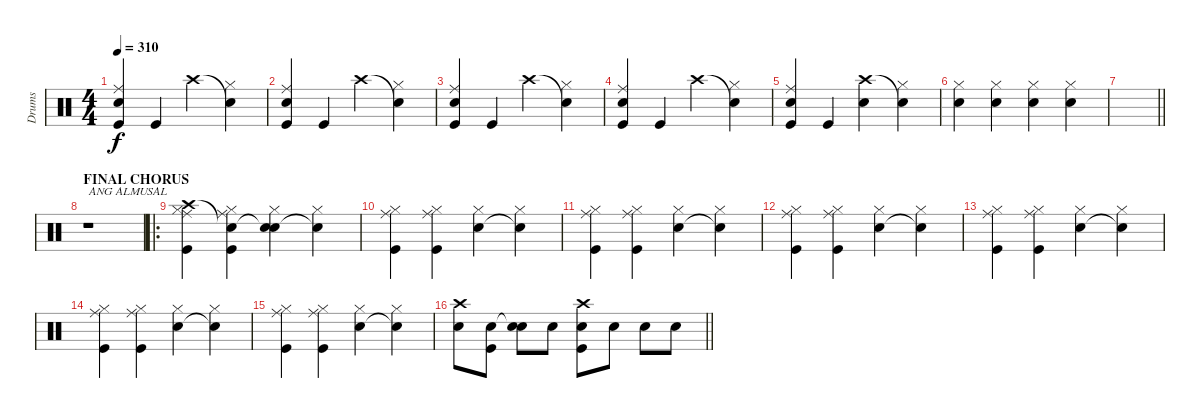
\track ("Drums" "Drums") {instrument percussion}
\staff {score}
\articulation defaults
\ts (4 4)
\tempo 310
\clef neutral
\ks c
("Snare (hit) 2" "Ride (middle)" "Kick (hit)").4{dy f} "Kick (hit)".4 "Crash high (hit)".4 ("Snare (hit)"{t} "Hi-Hat (closed)").4 |
("Snare (hit) 2" "Ride (middle)" "Kick (hit)").4 "Kick (hit)".4 "Crash high (hit)".4 ("Snare (hit)"{t} "Hi-Hat (closed)").4 |
("Snare (hit) 2" "Ride (middle)" "Kick (hit)").4 "Kick (hit)".4 "Crash high (hit)".4 ("Snare (hit)"{t} "Hi-Hat (closed)").4 |
("Snare (hit) 2" "Ride (middle)" "Kick (hit)").4 "Kick (hit)".4 "Crash high (hit)".4 ("Snare (hit)"{t} "Hi-Hat (closed)").4 |
("Snare (hit) 2" "Ride (middle)" "Kick (hit)").4 "Kick (hit)".4 ("Crash high (hit)" "Snare (hit) 2").4 ("Snare (hit)"{t} "Hi-Hat (closed)").4 |
("Snare (hit) 2" "Hi-Hat (closed)").4 ("Snare (hit) 2" "Hi-Hat (closed)").4 ("Snare (hit) 2" "Hi-Hat (closed)").4 ("Snare (hit) 2" "Hi-Hat (closed)").4 |
\barLineRight lightlight
|
\section ("" "FINAL CHORUS")
r.1{txt "ANG ALMUSAL"} |
\ro
("Crash high (hit)" "Ride (middle)" "Hi-Hat (closed)" "Kick (hit)").4 ("Snare (hit)"{t} "Ride (middle)" "Hi-Hat (closed)" "Kick (hit)").4 ("Snare (hit)"{t} "Snare (hit) 2" "Hi-Hat (closed)").4 ("Snare (hit)"{t} "Hi-Hat (closed)").4 |
("Ride (middle)" "Hi-Hat (closed)" "Kick (hit)").4 ("Ride (middle)" "Hi-Hat (closed)" "Kick (hit)").4 ("Snare (hit) 2" "Hi-Hat (closed)").4 ("Snare (hit)"{t} "Hi-Hat (closed)").4 |
("Ride (middle)" "Hi-Hat (closed)" "Kick (hit)").4 ("Ride (middle)" "Hi-Hat (closed)" "Kick (hit)").4 ("Snare (hit) 2" "Hi-Hat (closed)").4 ("Snare (hit)"{t} "Hi-Hat (closed)").4 |
("Ride (middle)" "Hi-Hat (closed)" "Kick (hit)").4 ("Ride (middle)" "Hi-Hat (closed)" "Kick (hit)").4 ("Snare (hit) 2" "Hi-Hat (closed)").4 ("Snare (hit)"{t} "Hi-Hat (closed)").4 |
("Ride (middle)" "Hi-Hat (closed)" "Kick (hit)").4 ("Ride (middle)" "Hi-Hat (closed)" "Kick (hit)").4 ("Snare (hit) 2" "Hi-Hat (closed)").4 ("Snare (hit)"{t} "Hi-Hat (closed)").4 |
("Ride (middle)" "Hi-Hat (closed)" "Kick (hit)").4 ("Ride (middle)" "Hi-Hat (closed)" "Kick (hit)").4 ("Snare (hit) 2" "Hi-Hat (closed)").4 ("Snare (hit)"{t} "Hi-Hat (closed)").4 |
("Ride (middle)" "Hi-Hat (closed)" "Kick (hit)").4 ("Ride (middle)" "Hi-Hat (closed)" "Kick (hit)").4 ("Snare (hit) 2" "Hi-Hat (closed)").4 ("Snare (hit)"{t} "Hi-Hat (closed)").4 |
\barLineRight lightlight
("Crash high (hit)" "Snare (hit) 2").8 ("Snare (hit) 2" "Kick (hit)").8 ("Snare (hit)"{t} "Snare (hit) 2").8 "Snare (hit) 2".8 ("Crash high (hit)" "Snare (hit) 2" "Kick (hit)").8 "Snare (hit) 2".8 "Snare (hit) 2".8 "Snare (hit) 2".8
